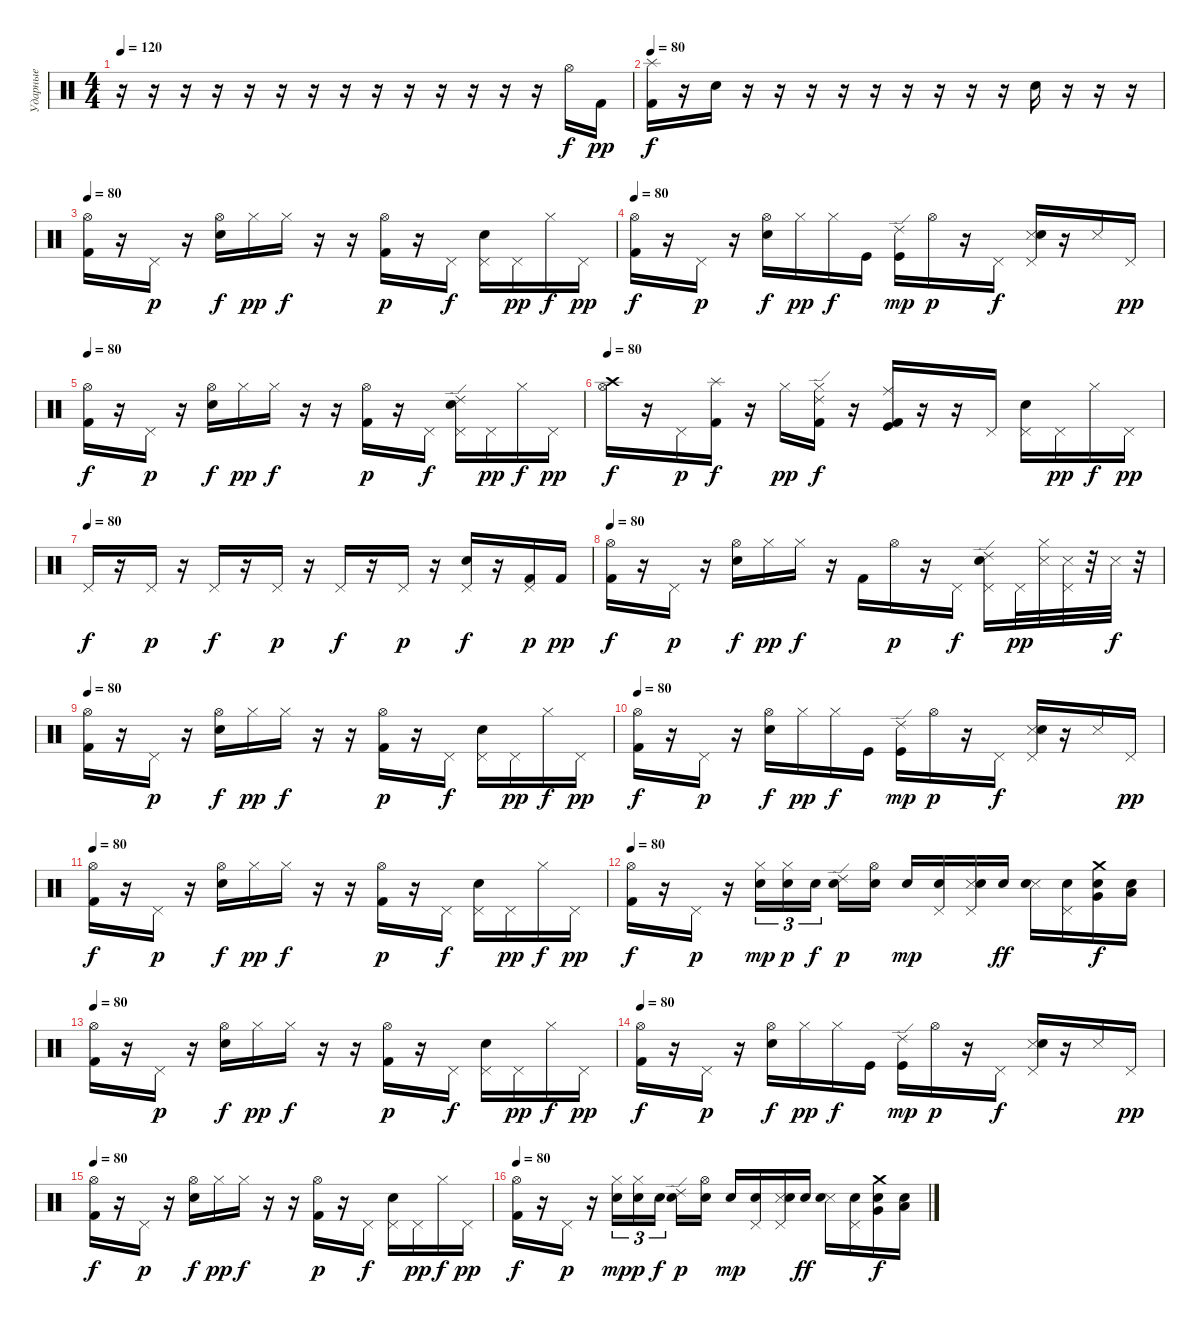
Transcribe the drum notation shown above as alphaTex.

\track ("Ударные" "Ударные") {instrument percussion}
\staff {score}
\articulation defaults
\ts (4 4)
\tempo 120
\tempo 80
\tempo 120
\clef neutral
\ks c
r.16{dy f} r.16 r.16 r.16 r.16 r.16 r.16 r.16 r.16 r.16 r.16 r.16 r.16 r.16 "Hi-Hat (open)".16 "Kick (hit) 2".16{dy pp} |
\tempo 80
("Splash (hit)" "Kick (hit) 2").16{dy f} r.16 "Snare (hit)".16 r.16 r.16 r.16 r.16 r.16 r.16 r.16 r.16 r.16 "Electric Snare (hit)".16 r.16 r.16 r.16 |
\tempo 80
("Hi-Hat (open)" "Kick (hit) 2").16 r.16 "Pedal Hi-Hat (hit)".16{dy p} r.16 ("Hi-Hat (open)" "Electric Snare (hit)").16{dy f} "Hi-Hat (closed)".16{dy pp} "Hi-Hat (closed)".16{dy f} r.16 r.16 ("Hi-Hat (open)" "Kick (hit) 2").16{dy p} r.16 "Pedal Hi-Hat (hit)".16{dy f} ("Pedal Hi-Hat (hit)" "Electric Snare (hit)").16 "Pedal Hi-Hat (hit)".16{dy pp} "Hi-Hat (closed)".16{dy f} "Pedal Hi-Hat (hit)".16{dy pp} |
\tempo 80
("Hi-Hat (open)" "Kick (hit) 2").16{dy f} r.16 "Pedal Hi-Hat (hit)".16{dy p} r.16 ("Hi-Hat (open)" "Electric Snare (hit)").16{dy f} "Hi-Hat (closed)".16{dy pp} "Hi-Hat (closed)".16{dy f} "Kick (hit)".16 ("Ride (edge) 2" "Kick (hit)").16{dy mp} "Hi-Hat (open)".16{dy p} r.16 "Pedal Hi-Hat (hit)".16{dy f} ("Pedal Hi-Hat (hit)" "Snare (side stick) 3" "Electric Snare (hit)").16 r.16 "Snare (side stick) 3".16 "Pedal Hi-Hat (hit)".16{dy pp} |
\tempo 80
("Hi-Hat (open)" "Kick (hit) 2").16{dy f} r.16 "Pedal Hi-Hat (hit)".16{dy p} r.16 ("Hi-Hat (open)" "Electric Snare (hit)").16{dy f} "Hi-Hat (closed)".16{dy pp} "Hi-Hat (closed)".16{dy f} r.16 r.16 ("Hi-Hat (open)" "Kick (hit) 2").16{dy p} r.16 "Pedal Hi-Hat (hit)".16{dy f} ("Pedal Hi-Hat (hit)" "Ride (edge) 2" "Electric Snare (hit)").16 "Pedal Hi-Hat (hit)".16{dy pp} "Hi-Hat (closed)".16{dy f} "Pedal Hi-Hat (hit)".16{dy pp} |
\tempo 80
("Hi-Hat (open)" "Crash high (hit)").16{dy f} r.16 "Pedal Hi-Hat (hit)".16{dy p} ("Splash (hit)" "Kick (hit) 2").16{dy f} r.16 "Hi-Hat (closed)".16{dy pp} ("Hi-Hat (closed)" "Ride (edge) 2" "Kick (hit) 2").16{dy f} r.16 ("Ride (middle)" "Kick (hit)" "Kick (hit) 2").16 r.16 r.16 "Pedal Hi-Hat (hit)".16 ("Pedal Hi-Hat (hit)" "Electric Snare (hit)").16 "Pedal Hi-Hat (hit)".16{dy pp} "Hi-Hat (closed)".16{dy f} "Pedal Hi-Hat (hit)".16{dy pp} |
\tempo (80)
"Pedal Hi-Hat (hit)".16{dy f} r.16 "Pedal Hi-Hat (hit)".16{dy p} r.16 "Pedal Hi-Hat (hit)".16{dy f} r.16 "Pedal Hi-Hat (hit)".16{dy p} r.16 "Pedal Hi-Hat (hit)".16{dy f} r.16 "Pedal Hi-Hat (hit)".16{dy p} r.16 ("Electric Snare (hit)" "Pedal Hi-Hat (hit)").16{dy f} r.16 ("Kick (hit) 2" "Pedal Hi-Hat (hit)").16{dy p} "Kick (hit) 2".16{dy pp} |
\tempo 80
("Hi-Hat (open)" "Kick (hit) 2").16{dy f} r.16 "Pedal Hi-Hat (hit)".16{dy p} r.16 ("Hi-Hat (open)" "Electric Snare (hit)").16{dy f} "Hi-Hat (closed)".16{dy pp} "Hi-Hat (closed)".16{dy f} r.16 "Kick (hit) 2".16 "Hi-Hat (open)".16{dy p} r.16 "Pedal Hi-Hat (hit)".16{dy f} ("Pedal Hi-Hat (hit)" "Ride (edge) 2" "Electric Snare (hit)").16 "Pedal Hi-Hat (hit)".32{dy pp} ("Hi-Hat (closed)" "Snare (side stick) 3").32 ("Pedal Hi-Hat (hit)" "Snare (side stick) 3").32 r.32 "Snare (side stick) 3".32{dy f} r.32 |
\tempo 80
("Hi-Hat (open)" "Kick (hit) 2").16 r.16 "Pedal Hi-Hat (hit)".16{dy p} r.16 ("Hi-Hat (open)" "Electric Snare (hit)").16{dy f} "Hi-Hat (closed)".16{dy pp} "Hi-Hat (closed)".16{dy f} r.16 r.16 ("Hi-Hat (open)" "Kick (hit) 2").16{dy p} r.16 "Pedal Hi-Hat (hit)".16{dy f} ("Pedal Hi-Hat (hit)" "Electric Snare (hit)").16 "Pedal Hi-Hat (hit)".16{dy pp} "Hi-Hat (closed)".16{dy f} "Pedal Hi-Hat (hit)".16{dy pp} |
\tempo 80
("Hi-Hat (open)" "Kick (hit) 2").16{dy f} r.16 "Pedal Hi-Hat (hit)".16{dy p} r.16 ("Hi-Hat (open)" "Electric Snare (hit)").16{dy f} "Hi-Hat (closed)".16{dy pp} "Hi-Hat (closed)".16{dy f} "Kick (hit)".16 ("Ride (edge) 2" "Kick (hit)").16{dy mp} "Hi-Hat (open)".16{dy p} r.16 "Pedal Hi-Hat (hit)".16{dy f} ("Pedal Hi-Hat (hit)" "Snare (side stick) 3" "Electric Snare (hit)").16 r.16 "Snare (side stick) 3".16 "Pedal Hi-Hat (hit)".16{dy pp} |
\tempo 80
("Hi-Hat (open)" "Kick (hit) 2").16{dy f} r.16 "Pedal Hi-Hat (hit)".16{dy p} r.16 ("Hi-Hat (open)" "Electric Snare (hit)").16{dy f} "Hi-Hat (closed)".16{dy pp} "Hi-Hat (closed)".16{dy f} r.16 r.16 ("Hi-Hat (open)" "Kick (hit) 2").16{dy p} r.16 "Pedal Hi-Hat (hit)".16{dy f} ("Pedal Hi-Hat (hit)" "Electric Snare (hit)").16 "Pedal Hi-Hat (hit)".16{dy pp} "Hi-Hat (closed)".16{dy f} "Pedal Hi-Hat (hit)".16{dy pp} |
\tempo 80
("Hi-Hat (open)" "Kick (hit) 2").16{dy f} r.16 "Pedal Hi-Hat (hit)".16{dy p} r.16 ("Hi-Hat (closed)" "Electric Snare (hit)").16{tu (3 2) dy mp} ("Hi-Hat (closed)" "Electric Snare (hit)").16{tu (3 2) dy p} "Electric Snare (hit)".16{tu (3 2) dy f} ("Ride (edge) 2" "Electric Snare (hit)").16{dy p} ("Hi-Hat (open)" "Electric Snare (hit)").16 "Electric Snare (hit)".16{dy mp} ("Pedal Hi-Hat (hit)" "Electric Snare (hit)").16 ("Pedal Hi-Hat (hit)" "Snare (side stick) 3" "Electric Snare (hit)").16 "Electric Snare (hit)".16{dy ff} ("Snare (side stick) 3" "Electric Snare (hit)").16 ("Pedal Hi-Hat (hit)" "Electric Snare (hit)").16 ("Very Low Tom (hit)" "Crash medium (hit)" "Snare (hit) 2").16{dy f} ("Low Tom (hit)" "Snare (hit) 2").16 |
\tempo 80
("Hi-Hat (open)" "Kick (hit) 2").16 r.16 "Pedal Hi-Hat (hit)".16{dy p} r.16 ("Hi-Hat (open)" "Electric Snare (hit)").16{dy f} "Hi-Hat (closed)".16{dy pp} "Hi-Hat (closed)".16{dy f} r.16 r.16 ("Hi-Hat (open)" "Kick (hit) 2").16{dy p} r.16 "Pedal Hi-Hat (hit)".16{dy f} ("Pedal Hi-Hat (hit)" "Electric Snare (hit)").16 "Pedal Hi-Hat (hit)".16{dy pp} "Hi-Hat (closed)".16{dy f} "Pedal Hi-Hat (hit)".16{dy pp} |
\tempo 80
("Hi-Hat (open)" "Kick (hit) 2").16{dy f} r.16 "Pedal Hi-Hat (hit)".16{dy p} r.16 ("Hi-Hat (open)" "Electric Snare (hit)").16{dy f} "Hi-Hat (closed)".16{dy pp} "Hi-Hat (closed)".16{dy f} "Kick (hit)".16 ("Ride (edge) 2" "Kick (hit)").16{dy mp} "Hi-Hat (open)".16{dy p} r.16 "Pedal Hi-Hat (hit)".16{dy f} ("Pedal Hi-Hat (hit)" "Snare (side stick) 3" "Electric Snare (hit)").16 r.16 "Snare (side stick) 3".16 "Pedal Hi-Hat (hit)".16{dy pp} |
\tempo 80
("Hi-Hat (open)" "Kick (hit) 2").16{dy f} r.16 "Pedal Hi-Hat (hit)".16{dy p} r.16 ("Hi-Hat (open)" "Electric Snare (hit)").16{dy f} "Hi-Hat (closed)".16{dy pp} "Hi-Hat (closed)".16{dy f} r.16 r.16 ("Hi-Hat (open)" "Kick (hit) 2").16{dy p} r.16 "Pedal Hi-Hat (hit)".16{dy f} ("Pedal Hi-Hat (hit)" "Electric Snare (hit)").16 "Pedal Hi-Hat (hit)".16{dy pp} "Hi-Hat (closed)".16{dy f} "Pedal Hi-Hat (hit)".16{dy pp} |
\tempo 80
("Hi-Hat (open)" "Kick (hit) 2").16{dy f} r.16 "Pedal Hi-Hat (hit)".16{dy p} r.16 ("Hi-Hat (closed)" "Electric Snare (hit)").16{tu (3 2) dy mp} ("Hi-Hat (closed)" "Electric Snare (hit)").16{tu (3 2) dy p} "Electric Snare (hit)".16{tu (3 2) dy f} ("Ride (edge) 2" "Electric Snare (hit)").16{dy p} ("Hi-Hat (open)" "Electric Snare (hit)").16 "Electric Snare (hit)".16{dy mp} ("Pedal Hi-Hat (hit)" "Electric Snare (hit)").16 ("Pedal Hi-Hat (hit)" "Snare (side stick) 3" "Electric Snare (hit)").16 "Electric Snare (hit)".16{dy ff} ("Snare (side stick) 3" "Electric Snare (hit)").16 ("Pedal Hi-Hat (hit)" "Electric Snare (hit)").16 ("Very Low Tom (hit)" "Crash medium (hit)" "Snare (hit) 2").16{dy f} ("Low Tom (hit)" "Snare (hit) 2").16
